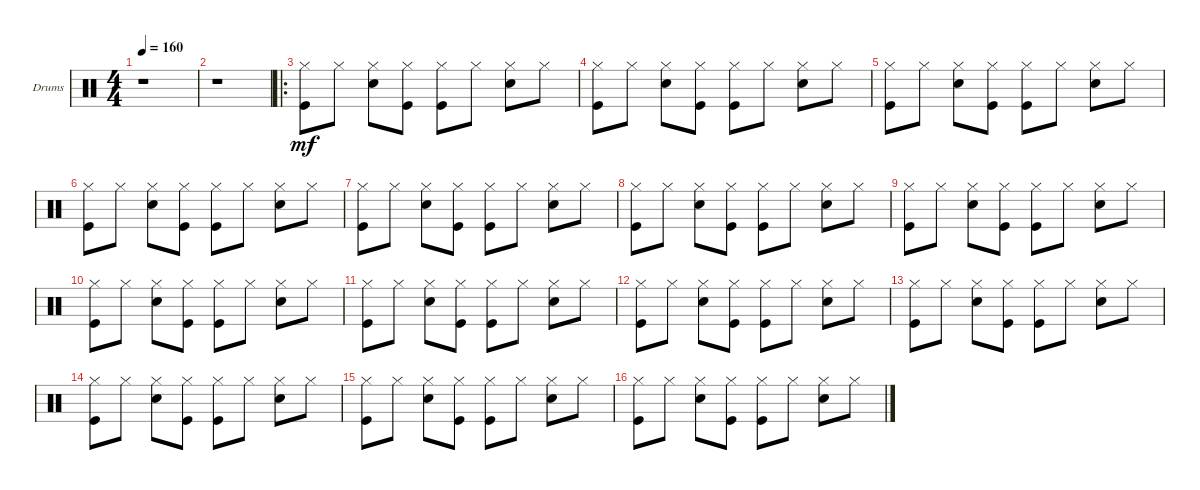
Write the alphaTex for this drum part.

\defaultSystemsLayout 4
\bracketExtendMode groupsimilarinstruments
\firstSystemTrackNameOrientation horizontal
\otherSystemsTrackNameOrientation horizontal
\track ("Drumkit" "Drums") {instrument percussion}
\staff {score}
\articulation defaults
\ts (4 4)
\tempo 160
\clef neutral
\scale
0.447368
\ks c
r.1{dy mf} |
\scale
0.25 r.1 |
\ro
\scale
0.302632 ("Hi-Hat (closed)" "Kick (hit)").8 "Hi-Hat (closed)".8 ("Hi-Hat (closed)" "Snare (hit) 2").8 ("Hi-Hat (closed)" "Kick (hit)").8 ("Hi-Hat (closed)" "Kick (hit)").8 "Hi-Hat (closed)".8 ("Hi-Hat (closed)" "Snare (hit) 2").8 "Hi-Hat (closed)".8 |
\scale
0.333333 ("Hi-Hat (closed)" "Kick (hit)").8 "Hi-Hat (closed)".8 ("Hi-Hat (closed)" "Snare (hit) 2").8 ("Hi-Hat (closed)" "Kick (hit)").8 ("Hi-Hat (closed)" "Kick (hit)").8 "Hi-Hat (closed)".8 ("Hi-Hat (closed)" "Snare (hit) 2").8 "Hi-Hat (closed)".8 |
\scale
0.333333 ("Hi-Hat (closed)" "Kick (hit)").8 "Hi-Hat (closed)".8 ("Hi-Hat (closed)" "Snare (hit) 2").8 ("Hi-Hat (closed)" "Kick (hit)").8 ("Hi-Hat (closed)" "Kick (hit)").8 "Hi-Hat (closed)".8 ("Hi-Hat (closed)" "Snare (hit) 2").8 "Hi-Hat (closed)".8 |
\scale
0.333333 ("Hi-Hat (closed)" "Kick (hit)").8 "Hi-Hat (closed)".8 ("Hi-Hat (closed)" "Snare (hit) 2").8 ("Hi-Hat (closed)" "Kick (hit)").8 ("Hi-Hat (closed)" "Kick (hit)").8 "Hi-Hat (closed)".8 ("Hi-Hat (closed)" "Snare (hit) 2").8 "Hi-Hat (closed)".8 |
\scale
0.333333 ("Hi-Hat (closed)" "Kick (hit)").8 "Hi-Hat (closed)".8 ("Hi-Hat (closed)" "Snare (hit) 2").8 ("Hi-Hat (closed)" "Kick (hit)").8 ("Hi-Hat (closed)" "Kick (hit)").8 "Hi-Hat (closed)".8 ("Hi-Hat (closed)" "Snare (hit) 2").8 "Hi-Hat (closed)".8 |
\scale
0.333333 ("Hi-Hat (closed)" "Kick (hit)").8 "Hi-Hat (closed)".8 ("Hi-Hat (closed)" "Snare (hit) 2").8 ("Hi-Hat (closed)" "Kick (hit)").8 ("Hi-Hat (closed)" "Kick (hit)").8 "Hi-Hat (closed)".8 ("Hi-Hat (closed)" "Snare (hit) 2").8 "Hi-Hat (closed)".8 |
\scale
0.333333 ("Hi-Hat (closed)" "Kick (hit)").8 "Hi-Hat (closed)".8 ("Hi-Hat (closed)" "Snare (hit) 2").8 ("Hi-Hat (closed)" "Kick (hit)").8 ("Hi-Hat (closed)" "Kick (hit)").8 "Hi-Hat (closed)".8 ("Hi-Hat (closed)" "Snare (hit) 2").8 "Hi-Hat (closed)".8 |
\scale
0.333333 ("Hi-Hat (closed)" "Kick (hit)").8 "Hi-Hat (closed)".8 ("Hi-Hat (closed)" "Snare (hit) 2").8 ("Hi-Hat (closed)" "Kick (hit)").8 ("Hi-Hat (closed)" "Kick (hit)").8 "Hi-Hat (closed)".8 ("Hi-Hat (closed)" "Snare (hit) 2").8 "Hi-Hat (closed)".8 |
\scale
0.333333 ("Hi-Hat (closed)" "Kick (hit)").8 "Hi-Hat (closed)".8 ("Hi-Hat (closed)" "Snare (hit) 2").8 ("Hi-Hat (closed)" "Kick (hit)").8 ("Hi-Hat (closed)" "Kick (hit)").8 "Hi-Hat (closed)".8 ("Hi-Hat (closed)" "Snare (hit) 2").8 "Hi-Hat (closed)".8 |
\scale
0.333333 ("Hi-Hat (closed)" "Kick (hit)").8 "Hi-Hat (closed)".8 ("Hi-Hat (closed)" "Snare (hit) 2").8 ("Hi-Hat (closed)" "Kick (hit)").8 ("Hi-Hat (closed)" "Kick (hit)").8 "Hi-Hat (closed)".8 ("Hi-Hat (closed)" "Snare (hit) 2").8 "Hi-Hat (closed)".8 |
\scale
0.333333 ("Hi-Hat (closed)" "Kick (hit)").8 "Hi-Hat (closed)".8 ("Hi-Hat (closed)" "Snare (hit) 2").8 ("Hi-Hat (closed)" "Kick (hit)").8 ("Hi-Hat (closed)" "Kick (hit)").8 "Hi-Hat (closed)".8 ("Hi-Hat (closed)" "Snare (hit) 2").8 "Hi-Hat (closed)".8 |
\scale
0.333333 ("Hi-Hat (closed)" "Kick (hit)").8 "Hi-Hat (closed)".8 ("Hi-Hat (closed)" "Snare (hit) 2").8 ("Hi-Hat (closed)" "Kick (hit)").8 ("Hi-Hat (closed)" "Kick (hit)").8 "Hi-Hat (closed)".8 ("Hi-Hat (closed)" "Snare (hit) 2").8 "Hi-Hat (closed)".8 |
\scale
0.333333 ("Hi-Hat (closed)" "Kick (hit)").8 "Hi-Hat (closed)".8 ("Hi-Hat (closed)" "Snare (hit) 2").8 ("Hi-Hat (closed)" "Kick (hit)").8 ("Hi-Hat (closed)" "Kick (hit)").8 "Hi-Hat (closed)".8 ("Hi-Hat (closed)" "Snare (hit) 2").8 "Hi-Hat (closed)".8 |
\scale
0.322034 ("Hi-Hat (closed)" "Kick (hit)").8 "Hi-Hat (closed)".8 ("Hi-Hat (closed)" "Snare (hit) 2").8 ("Hi-Hat (closed)" "Kick (hit)").8 ("Hi-Hat (closed)" "Kick (hit)").8 "Hi-Hat (closed)".8 ("Hi-Hat (closed)" "Snare (hit) 2").8 "Hi-Hat (closed)".8
